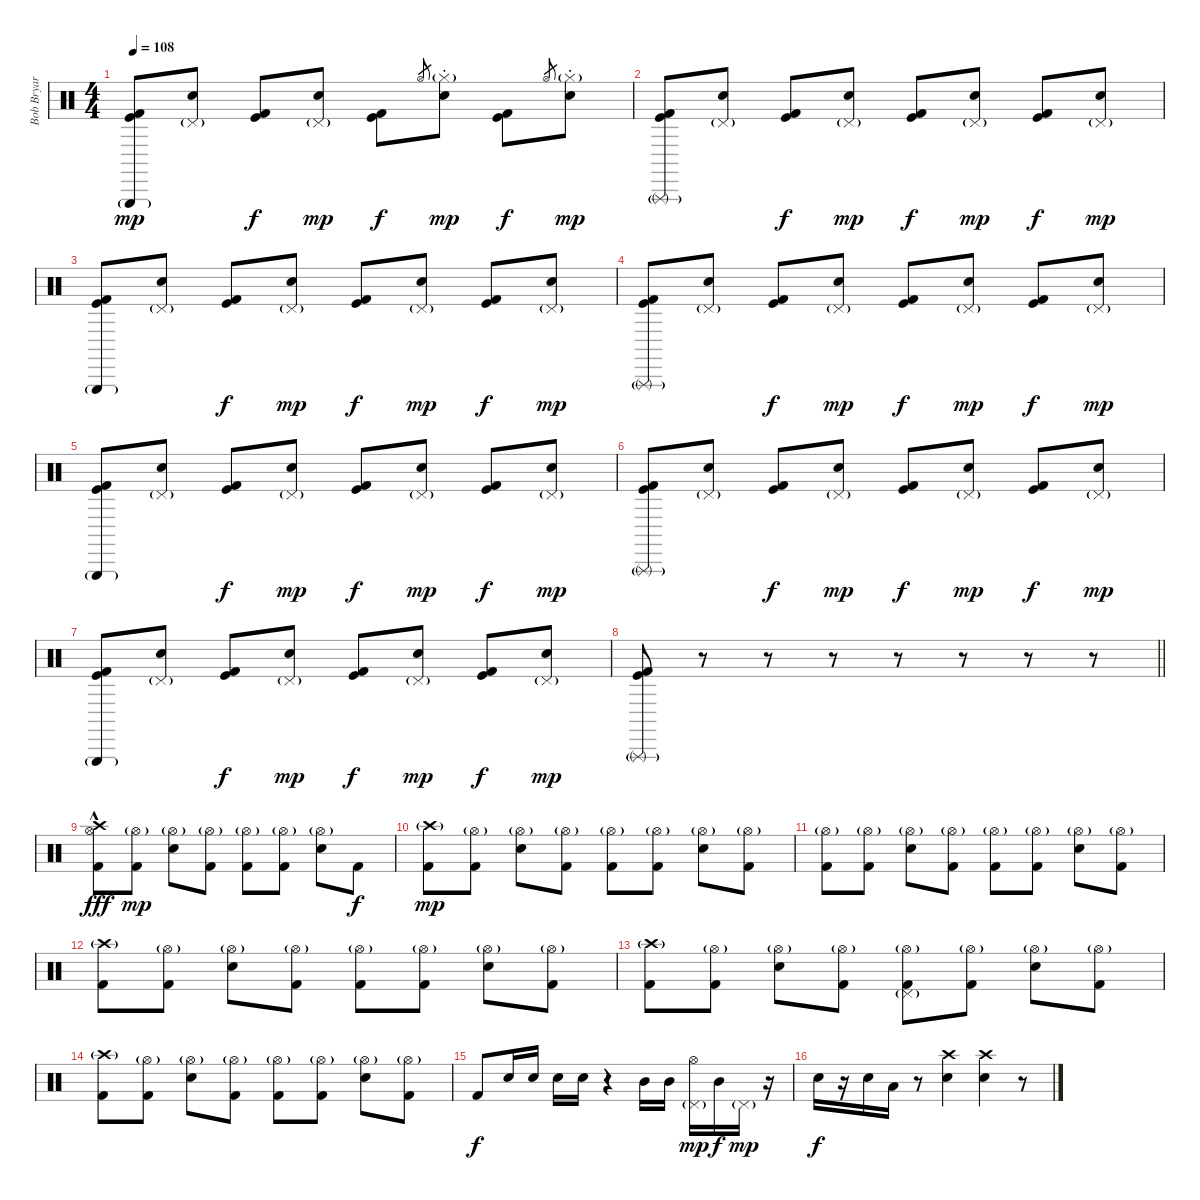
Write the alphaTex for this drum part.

\track ("Bob Bryar (Drums)" "Bob Bryar ") {instrument percussion}
\staff {score}
\articulation defaults
\ts (4 4)
\tempo 108
\clef neutral
\ks c
("Triangle (hit)"{g} "Kick (hit)" "Kick (hit) 2").8{dy mp volume 16 balance 8} ("Pedal Hi-Hat (hit)"{g} "Electric Snare (hit)").8 ("Kick (hit)" "Kick (hit) 2").8{dy f} ("Pedal Hi-Hat (hit)"{g} "Electric Snare (hit)").8{dy mp} ("Kick (hit)" "Kick (hit) 2").8{dy f} "Hi-Hat (open)".8{gr} ("Hi-Hat (closed)"{g st} "Electric Snare (hit)").8{dy mp} ("Kick (hit)" "Kick (hit) 2").8{dy f} "Hi-Hat (open)".8{gr} ("Hi-Hat (closed)"{g st} "Electric Snare (hit)").8{dy mp} |
("Triangle (rnute)"{g} "Kick (hit)" "Kick (hit) 2").8 ("Pedal Hi-Hat (hit)"{g} "Electric Snare (hit)").8 ("Kick (hit)" "Kick (hit) 2").8{dy f} ("Pedal Hi-Hat (hit)"{g} "Electric Snare (hit)").8{dy mp} ("Kick (hit)" "Kick (hit) 2").8{dy f} ("Pedal Hi-Hat (hit)"{g} "Electric Snare (hit)").8{dy mp} ("Kick (hit)" "Kick (hit) 2").8{dy f} ("Pedal Hi-Hat (hit)"{g} "Electric Snare (hit)").8{dy mp} |
("Triangle (hit)"{g} "Kick (hit)" "Kick (hit) 2").8 ("Pedal Hi-Hat (hit)"{g} "Electric Snare (hit)").8 ("Kick (hit)" "Kick (hit) 2").8{dy f} ("Pedal Hi-Hat (hit)"{g} "Electric Snare (hit)").8{dy mp} ("Kick (hit)" "Kick (hit) 2").8{dy f} ("Pedal Hi-Hat (hit)"{g} "Electric Snare (hit)").8{dy mp} ("Kick (hit)" "Kick (hit) 2").8{dy f} ("Pedal Hi-Hat (hit)"{g} "Electric Snare (hit)").8{dy mp} |
("Triangle (rnute)"{g} "Kick (hit)" "Kick (hit) 2").8 ("Pedal Hi-Hat (hit)"{g} "Electric Snare (hit)").8 ("Kick (hit)" "Kick (hit) 2").8{dy f} ("Pedal Hi-Hat (hit)"{g} "Electric Snare (hit)").8{dy mp} ("Kick (hit)" "Kick (hit) 2").8{dy f} ("Pedal Hi-Hat (hit)"{g} "Electric Snare (hit)").8{dy mp} ("Kick (hit)" "Kick (hit) 2").8{dy f} ("Pedal Hi-Hat (hit)"{g} "Electric Snare (hit)").8{dy mp} |
("Triangle (hit)"{g} "Kick (hit)" "Kick (hit) 2").8 ("Pedal Hi-Hat (hit)"{g} "Electric Snare (hit)").8 ("Kick (hit)" "Kick (hit) 2").8{dy f} ("Pedal Hi-Hat (hit)"{g} "Electric Snare (hit)").8{dy mp} ("Kick (hit)" "Kick (hit) 2").8{dy f} ("Pedal Hi-Hat (hit)"{g} "Electric Snare (hit)").8{dy mp} ("Kick (hit)" "Kick (hit) 2").8{dy f} ("Pedal Hi-Hat (hit)"{g} "Electric Snare (hit)").8{dy mp} |
("Triangle (rnute)"{g} "Kick (hit)" "Kick (hit) 2").8 ("Pedal Hi-Hat (hit)"{g} "Electric Snare (hit)").8 ("Kick (hit)" "Kick (hit) 2").8{dy f} ("Pedal Hi-Hat (hit)"{g} "Electric Snare (hit)").8{dy mp} ("Kick (hit)" "Kick (hit) 2").8{dy f} ("Pedal Hi-Hat (hit)"{g} "Electric Snare (hit)").8{dy mp} ("Kick (hit)" "Kick (hit) 2").8{dy f} ("Pedal Hi-Hat (hit)"{g} "Electric Snare (hit)").8{dy mp} |
("Triangle (hit)"{g} "Kick (hit)" "Kick (hit) 2").8 ("Pedal Hi-Hat (hit)"{g} "Electric Snare (hit)").8 ("Kick (hit)" "Kick (hit) 2").8{dy f} ("Pedal Hi-Hat (hit)"{g} "Electric Snare (hit)").8{dy mp} ("Kick (hit)" "Kick (hit) 2").8{dy f} ("Pedal Hi-Hat (hit)"{g} "Electric Snare (hit)").8{dy mp} ("Kick (hit)" "Kick (hit) 2").8{dy f} ("Pedal Hi-Hat (hit)"{g} "Electric Snare (hit)").8{dy mp} |
\barLineRight lightlight
("Triangle (rnute)"{g} "Kick (hit)" "Kick (hit) 2").8 r.8 r.8 r.8 r.8 r.8 r.8 r.8 |
("Crash high (hit)" "Hi-Hat (open)" "Kick (hit) 2"{hac}).8{dy fff} ("Hi-Hat (open)"{g} "Kick (hit) 2").8{dy mp} ("Hi-Hat (open)"{g} "Electric Snare (hit)").8 ("Hi-Hat (open)"{g} "Kick (hit) 2").8 ("Hi-Hat (open)"{g} "Kick (hit) 2").8 ("Hi-Hat (open)"{g} "Kick (hit) 2").8 ("Hi-Hat (open)"{g} "Electric Snare (hit)").8 "Kick (hit) 2".8{dy f} |
("Crash high (hit)"{g} "Kick (hit) 2").8{dy mp} ("Hi-Hat (open)"{g} "Kick (hit) 2").8 ("Hi-Hat (open)"{g} "Electric Snare (hit)").8 ("Hi-Hat (open)"{g} "Kick (hit) 2").8 ("Hi-Hat (open)"{g} "Kick (hit) 2").8 ("Hi-Hat (open)"{g} "Kick (hit) 2").8 ("Hi-Hat (open)"{g} "Electric Snare (hit)").8 ("Hi-Hat (open)"{g} "Kick (hit) 2").8 |
("Hi-Hat (open)"{g} "Kick (hit) 2").8 ("Hi-Hat (open)"{g} "Kick (hit) 2").8 ("Hi-Hat (open)"{g} "Electric Snare (hit)").8 ("Hi-Hat (open)"{g} "Kick (hit) 2").8 ("Hi-Hat (open)"{g} "Kick (hit) 2").8 ("Hi-Hat (open)"{g} "Kick (hit) 2").8 ("Hi-Hat (open)"{g} "Electric Snare (hit)").8 ("Hi-Hat (open)"{g} "Kick (hit) 2").8 |
("Crash high (hit)"{g} "Kick (hit) 2").8 ("Hi-Hat (open)"{g} "Kick (hit) 2").8 ("Hi-Hat (open)"{g} "Electric Snare (hit)").8 ("Hi-Hat (open)"{g} "Kick (hit) 2").8 ("Hi-Hat (open)"{g} "Kick (hit) 2").8 ("Hi-Hat (open)"{g} "Kick (hit) 2").8 ("Hi-Hat (open)"{g} "Electric Snare (hit)").8 ("Hi-Hat (open)"{g} "Kick (hit) 2").8 |
("Crash high (hit)"{g} "Kick (hit) 2").8 ("Hi-Hat (open)"{g} "Kick (hit) 2").8 ("Hi-Hat (open)"{g} "Electric Snare (hit)").8 ("Hi-Hat (open)"{g} "Kick (hit) 2").8 ("Hi-Hat (open)"{g} "Pedal Hi-Hat (hit)"{g} "Kick (hit) 2").8 ("Hi-Hat (open)"{g} "Kick (hit) 2").8 ("Hi-Hat (open)"{g} "Electric Snare (hit)").8 ("Hi-Hat (open)"{g} "Kick (hit) 2").8 |
("Crash high (hit)"{g} "Kick (hit) 2").8 ("Hi-Hat (open)"{g} "Kick (hit) 2").8 ("Hi-Hat (open)"{g} "Electric Snare (hit)").8 ("Hi-Hat (open)"{g} "Kick (hit) 2").8 ("Hi-Hat (open)"{g} "Kick (hit) 2").8 ("Hi-Hat (open)"{g} "Kick (hit) 2").8 ("Hi-Hat (open)"{g} "Electric Snare (hit)").8 ("Hi-Hat (open)"{g} "Kick (hit) 2").8 |
"Kick (hit) 2".8{dy f} "Electric Snare (hit)".16 "Electric Snare (hit)".16 "Electric Snare (hit)".16 "Electric Snare (hit)".16 r.4 "Mid Tom (hit)".16 "Mid Tom (hit)".16 ("Pedal Hi-Hat (hit)"{g} "Hi-Hat (open)").16{dy mp} "Mid Tom (hit)".16{dy f} "Pedal Hi-Hat (hit)"{g}.16{dy mp} r.16 |
"Electric Snare (hit)".16{dy f} r.16 "Electric Snare (hit)".16 "Low Tom (hit)".16 r.8 ("Crash high (hit)" "Electric Snare (hit)").4 ("Crash high (hit)" "Electric Snare (hit)").4 r.8
